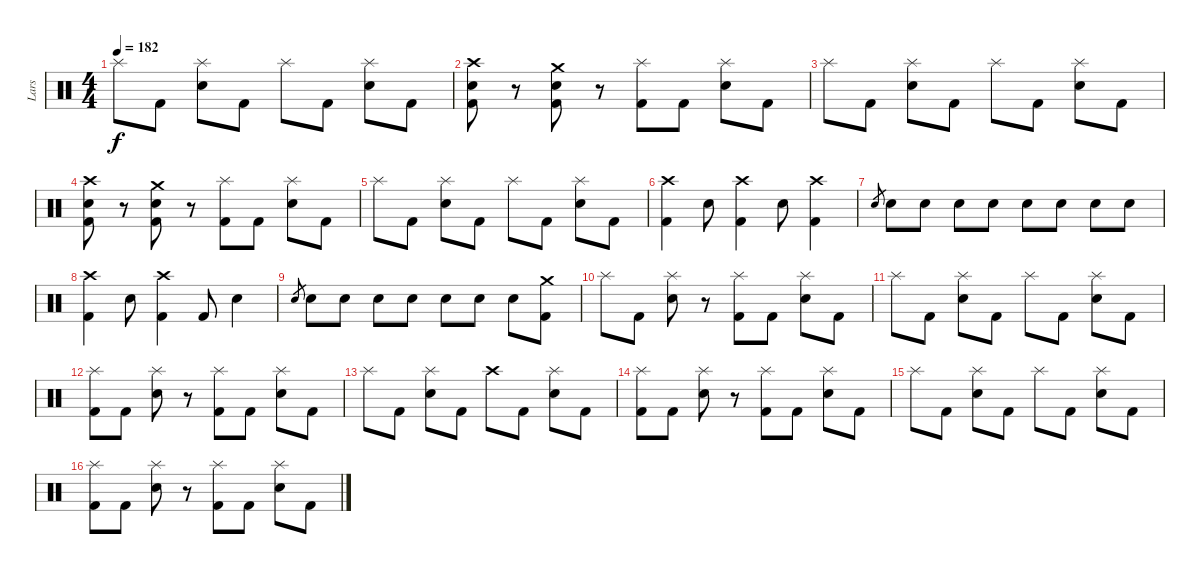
\track ("Lars" "Lars") {instrument percussion}
\staff {score}
\articulation defaults
\ts (4 4)
\tempo 182
\clef neutral
\ks c "Splash (hit)".8{dy f} "Kick (hit) 2".8
("Splash (hit)" "Snare (hit) 2").8 "Kick (hit) 2".8 "Splash (hit)".8 "Kick (hit) 2".8 ("Splash (hit)" "Snare (hit) 2").8 "Kick (hit) 2".8 |
("Crash high (hit)" "Snare (hit) 2" "Kick (hit) 2").8 r.8 ("Crash medium (hit)" "Snare (hit) 2" "Kick (hit) 2").8 r.8 ("Splash (hit)" "Kick (hit) 2").8 "Kick (hit) 2".8 ("Splash (hit)" "Snare (hit) 2").8 "Kick (hit) 2".8 |
"Splash (hit)".8 "Kick (hit) 2".8 ("Splash (hit)" "Snare (hit) 2").8 "Kick (hit) 2".8 "Splash (hit)".8 "Kick (hit) 2".8 ("Splash (hit)" "Snare (hit) 2").8 "Kick (hit) 2".8 |
("Crash high (hit)" "Snare (hit) 2" "Kick (hit) 2").8 r.8 ("Crash medium (hit)" "Snare (hit) 2" "Kick (hit) 2").8 r.8 ("Splash (hit)" "Kick (hit) 2").8 "Kick (hit) 2".8 ("Splash (hit)" "Snare (hit) 2").8 "Kick (hit) 2".8 |
"Splash (hit)".8 "Kick (hit) 2".8 ("Splash (hit)" "Snare (hit) 2").8 "Kick (hit) 2".8 "Splash (hit)".8 "Kick (hit) 2".8 ("Splash (hit)" "Snare (hit) 2").8 "Kick (hit) 2".8 |
("Crash high (hit)" "Kick (hit) 2").4 "Snare (hit) 2".8 ("Crash high (hit)" "Kick (hit) 2").4 "Snare (hit) 2".8 ("Crash high (hit)" "Kick (hit) 2").4 |
"Snare (hit) 2".8{gr} "Snare (hit) 2".8 "Snare (hit) 2".8 "Snare (hit) 2".8 "Snare (hit) 2".8 "Snare (hit) 2".8 "Snare (hit) 2".8 "Snare (hit) 2".8 "Snare (hit) 2".8 |
("Crash high (hit)" "Kick (hit) 2").4 "Snare (hit) 2".8 ("Crash high (hit)" "Kick (hit) 2").4 "Kick (hit) 2".8 "Snare (hit) 2".4 |
"Snare (hit) 2".8{gr} "Snare (hit) 2".8 "Snare (hit) 2".8 "Snare (hit) 2".8 "Snare (hit) 2".8 "Snare (hit) 2".8 "Snare (hit) 2".8 "Snare (hit) 2".8 ("Crash medium (hit)" "Kick (hit) 2").8 |
"Splash (hit)".8 "Kick (hit) 2".8 ("Splash (hit)" "Snare (hit) 2").8 r.8 ("Splash (hit)" "Kick (hit) 2").8 "Kick (hit) 2".8 ("Splash (hit)" "Snare (hit) 2").8 "Kick (hit) 2".8 |
"Splash (hit)".8 "Kick (hit) 2".8 ("Splash (hit)" "Snare (hit) 2").8 "Kick (hit) 2".8 "Splash (hit)".8 "Kick (hit) 2".8 ("Splash (hit)" "Snare (hit) 2").8 "Kick (hit) 2".8 |
("Splash (hit)" "Kick (hit) 2").8 "Kick (hit) 2".8 ("Splash (hit)" "Snare (hit) 2").8 r.8 ("Splash (hit)" "Kick (hit) 2").8 "Kick (hit) 2".8 ("Splash (hit)" "Snare (hit) 2").8 "Kick (hit) 2".8 |
"Splash (hit)".8 "Kick (hit) 2".8 ("Splash (hit)" "Snare (hit) 2").8 "Kick (hit) 2".8 "Crash high (hit)".8 "Kick (hit) 2".8 ("Splash (hit)" "Snare (hit) 2").8 "Kick (hit) 2".8 |
("Splash (hit)" "Kick (hit) 2").8 "Kick (hit) 2".8 ("Splash (hit)" "Snare (hit) 2").8 r.8 ("Splash (hit)" "Kick (hit) 2").8 "Kick (hit) 2".8 ("Splash (hit)" "Snare (hit) 2").8 "Kick (hit) 2".8 |
"Splash (hit)".8 "Kick (hit) 2".8 ("Splash (hit)" "Snare (hit) 2").8 "Kick (hit) 2".8 "Splash (hit)".8 "Kick (hit) 2".8 ("Splash (hit)" "Snare (hit) 2").8 "Kick (hit) 2".8 |
("Splash (hit)" "Kick (hit) 2").8 "Kick (hit) 2".8 ("Splash (hit)" "Snare (hit) 2").8 r.8 ("Splash (hit)" "Kick (hit) 2").8 "Kick (hit) 2".8 ("Splash (hit)" "Snare (hit) 2").8 "Kick (hit) 2".8
